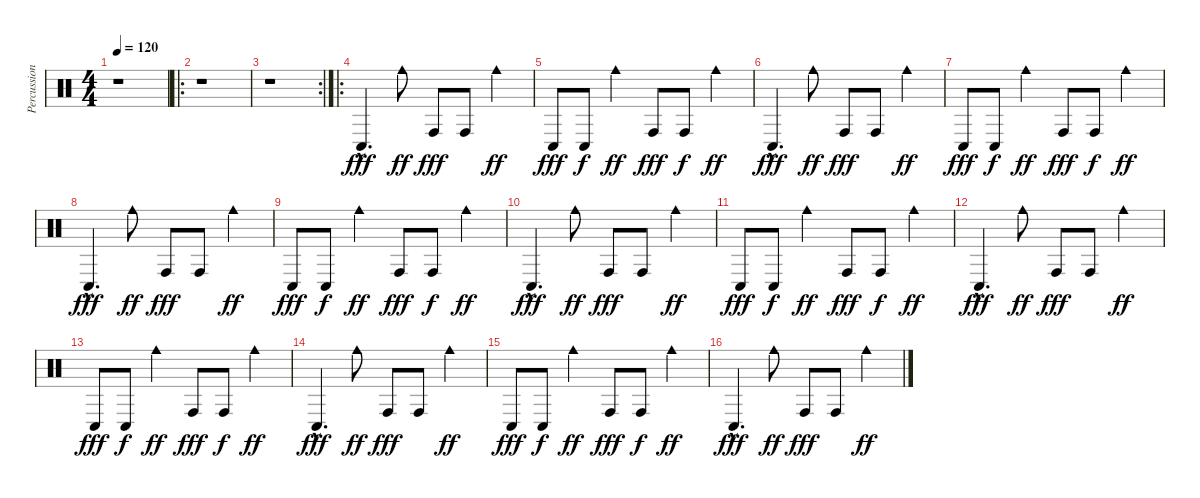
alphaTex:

\track ("Percussions" "Percussion") {instrument percussion}
\staff {score}
\articulation defaults
\ts (4 4)
\tempo 120
\clef neutral
\ks c
r.1{dy fff} |
\ro
r.1 |
\rc 2
r.1 |
\ro "Conga low (hit)"{hac}.4{d} "Cowbell medium (hit)".8{dy ff} "Conga high (hit)".8{dy fff} "Conga high (hit)".8 "Cowbell medium (hit)".4{dy ff}
|
"Conga low (hit)".8{dy fff} "Conga low (hit)".8{dy f} "Cowbell medium (hit)".4{dy ff} "Conga high (hit)".8{dy fff} "Conga high (hit)".8{dy f} "Cowbell medium (hit)".4{dy ff} |
"Conga low (hit)"{hac}.4{d dy fff} "Cowbell medium (hit)".8{dy ff} "Conga high (hit)".8{dy fff} "Conga high (hit)".8 "Cowbell medium (hit)".4{dy ff} |
"Conga low (hit)".8{dy fff} "Conga low (hit)".8{dy f} "Cowbell medium (hit)".4{dy ff} "Conga high (hit)".8{dy fff} "Conga high (hit)".8{dy f} "Cowbell medium (hit)".4{dy ff} |
"Conga low (hit)"{hac}.4{d dy fff} "Cowbell medium (hit)".8{dy ff} "Conga high (hit)".8{dy fff} "Conga high (hit)".8 "Cowbell medium (hit)".4{dy ff} |
"Conga low (hit)".8{dy fff} "Conga low (hit)".8{dy f} "Cowbell medium (hit)".4{dy ff} "Conga high (hit)".8{dy fff} "Conga high (hit)".8{dy f} "Cowbell medium (hit)".4{dy ff} |
"Conga low (hit)"{hac}.4{d dy fff} "Cowbell medium (hit)".8{dy ff} "Conga high (hit)".8{dy fff} "Conga high (hit)".8 "Cowbell medium (hit)".4{dy ff} |
"Conga low (hit)".8{dy fff} "Conga low (hit)".8{dy f} "Cowbell medium (hit)".4{dy ff} "Conga high (hit)".8{dy fff} "Conga high (hit)".8{dy f} "Cowbell medium (hit)".4{dy ff} |
"Conga low (hit)"{hac}.4{d dy fff} "Cowbell medium (hit)".8{dy ff} "Conga high (hit)".8{dy fff} "Conga high (hit)".8 "Cowbell medium (hit)".4{dy ff} |
"Conga low (hit)".8{dy fff} "Conga low (hit)".8{dy f} "Cowbell medium (hit)".4{dy ff} "Conga high (hit)".8{dy fff} "Conga high (hit)".8{dy f} "Cowbell medium (hit)".4{dy ff} |
"Conga low (hit)"{hac}.4{d dy fff} "Cowbell medium (hit)".8{dy ff} "Conga high (hit)".8{dy fff} "Conga high (hit)".8 "Cowbell medium (hit)".4{dy ff} |
"Conga low (hit)".8{dy fff} "Conga low (hit)".8{dy f} "Cowbell medium (hit)".4{dy ff} "Conga high (hit)".8{dy fff} "Conga high (hit)".8{dy f} "Cowbell medium (hit)".4{dy ff} |
"Conga low (hit)"{hac}.4{d dy fff} "Cowbell medium (hit)".8{dy ff} "Conga high (hit)".8{dy fff} "Conga high (hit)".8 "Cowbell medium (hit)".4{dy ff}
